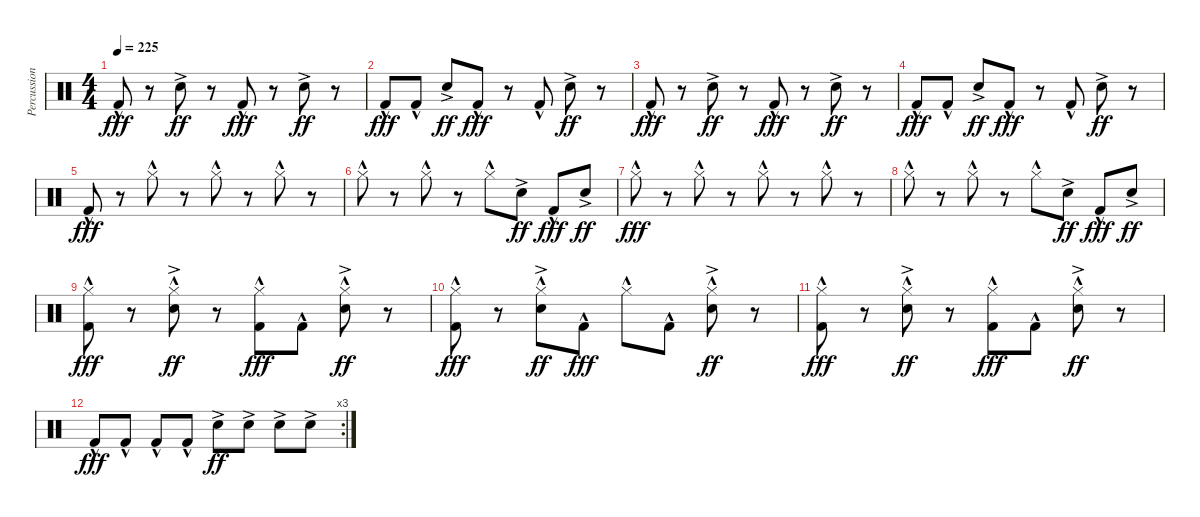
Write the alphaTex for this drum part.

\track ("Percussion" "Percussion") {instrument percussion}
\staff {score}
\articulation defaults
\ts (4 4)
\tempo 225
\clef neutral
\ks c "Kick (hit) 2"{hac}.8{dy fff}
r.8 "Snare (hit) 2"{ac}.8{dy ff} r.8 "Kick (hit) 2"{hac}.8{dy fff} r.8 "Snare (hit) 2"{ac}.8{dy ff} r.8 |
"Kick (hit) 2"{hac}.8{dy fff} "Kick (hit) 2"{hac}.8 "Snare (hit) 2"{ac}.8{dy ff} "Kick (hit) 2"{hac}.8{dy fff} r.8 "Kick (hit) 2"{hac}.8 "Snare (hit) 2"{ac}.8{dy ff} r.8 |
"Kick (hit) 2"{hac}.8{dy fff} r.8 "Snare (hit) 2"{ac}.8{dy ff} r.8 "Kick (hit) 2"{hac}.8{dy fff} r.8 "Snare (hit) 2"{ac}.8{dy ff} r.8 |
"Kick (hit) 2"{hac}.8{dy fff} "Kick (hit) 2"{hac}.8 "Snare (hit) 2"{ac}.8{dy ff} "Kick (hit) 2"{hac}.8{dy fff} r.8 "Kick (hit) 2"{hac}.8 "Snare (hit) 2"{ac}.8{dy ff} r.8 |
"Kick (hit) 2"{hac}.8{dy fff} r.8 "Hi-Hat (closed)"{hac}.8 r.8 "Hi-Hat (closed)"{hac}.8 r.8 "Hi-Hat (closed)"{hac}.8 r.8 |
"Hi-Hat (closed)"{hac}.8 r.8 "Hi-Hat (closed)"{hac}.8 r.8 "Hi-Hat (closed)"{hac}.8 "Snare (hit) 2"{ac}.8{dy ff} "Kick (hit) 2"{hac}.8{dy fff} "Snare (hit) 2"{ac}.8{dy ff} |
"Hi-Hat (closed)"{hac}.8{dy fff} r.8 "Hi-Hat (closed)"{hac}.8 r.8 "Hi-Hat (closed)"{hac}.8 r.8 "Hi-Hat (closed)"{hac}.8 r.8 |
"Hi-Hat (closed)"{hac}.8 r.8 "Hi-Hat (closed)"{hac}.8 r.8 "Hi-Hat (closed)"{hac}.8 "Snare (hit) 2"{ac}.8{dy ff} "Kick (hit) 2"{hac}.8{dy fff} "Snare (hit) 2"{ac}.8{dy ff} |
("Hi-Hat (closed)"{hac} "Kick (hit) 2"{hac}).8{dy fff} r.8 ("Hi-Hat (closed)"{hac} "Snare (hit) 2"{ac}).8{dy ff} r.8 ("Hi-Hat (closed)"{hac} "Kick (hit) 2"{hac}).8{dy fff} "Kick (hit) 2"{hac}.8 ("Hi-Hat (closed)"{hac} "Snare (hit) 2"{ac}).8{dy ff} r.8 |
("Hi-Hat (closed)"{hac} "Kick (hit) 2"{hac}).8{dy fff} r.8 ("Hi-Hat (closed)"{hac} "Snare (hit) 2"{ac}).8{dy ff} "Kick (hit) 2"{hac}.8{dy fff} "Hi-Hat (closed)"{hac}.8 "Kick (hit) 2"{hac}.8 ("Hi-Hat (closed)"{hac} "Snare (hit) 2"{ac}).8{dy ff} r.8 |
("Hi-Hat (closed)"{hac} "Kick (hit) 2"{hac}).8{dy fff} r.8 ("Hi-Hat (closed)"{hac} "Snare (hit) 2"{ac}).8{dy ff} r.8 ("Hi-Hat (closed)"{hac} "Kick (hit) 2"{hac}).8{dy fff} "Kick (hit) 2"{hac}.8 ("Hi-Hat (closed)"{hac} "Snare (hit) 2"{ac}).8{dy ff} r.8 |
\rc 3 "Kick (hit) 2"{hac}.8{dy fff} "Kick (hit) 2"{hac}.8 "Kick (hit) 2"{hac}.8 "Kick (hit) 2"{hac}.8 "Snare (hit) 2"{ac}.8{dy ff} "Snare (hit) 2"{ac}.8 "Snare (hit) 2"{ac}.8 "Snare (hit) 2"{ac}.8
